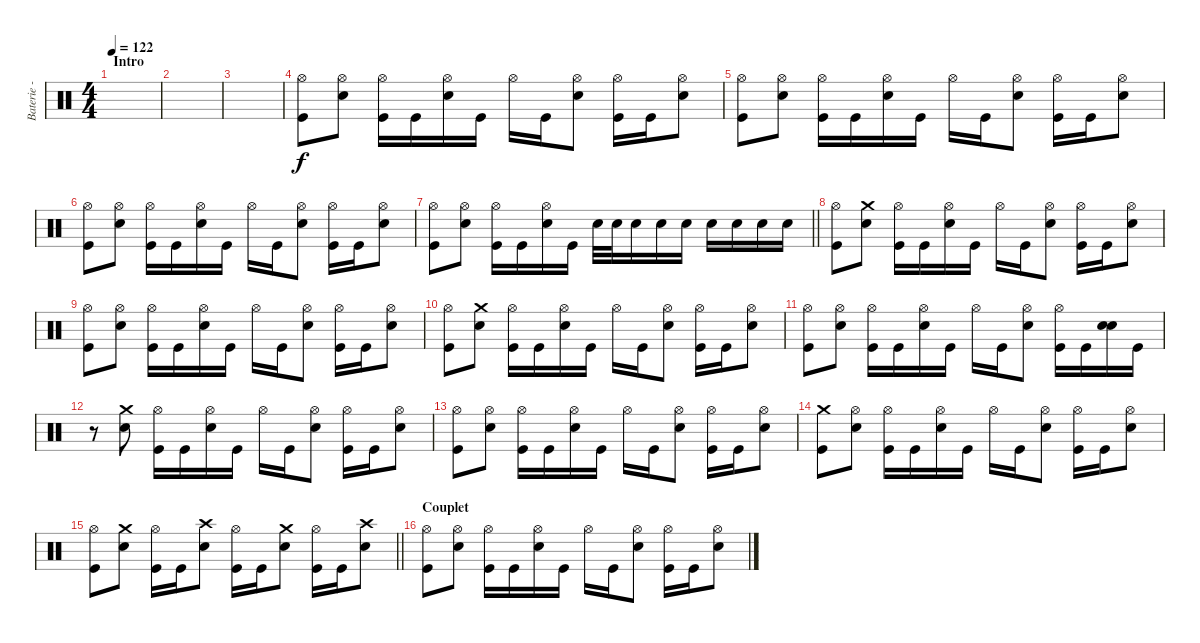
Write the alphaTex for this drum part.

\track ("Baterie - Alex" "Baterie - ") {instrument percussion}
\staff {score}
\articulation defaults
\ts (4 4)
\section ("" "Intro")
\tempo 122
\clef neutral
\ks c
|
|
|
("Hi-Hat (open)" "Kick (hit)").8 ("Hi-Hat (open)" "Electric Snare (hit)").8 ("Hi-Hat (open)" "Kick (hit)").16 "Kick (hit)".16 ("Hi-Hat (open)" "Electric Snare (hit)").16 "Kick (hit)".16 "Hi-Hat (open)".16 "Kick (hit)".16 ("Hi-Hat (open)" "Electric Snare (hit)").8 ("Hi-Hat (open)" "Kick (hit)").16 "Kick (hit)".16 ("Hi-Hat (open)" "Electric Snare (hit)").8 |
("Hi-Hat (open)" "Kick (hit)").8 ("Hi-Hat (open)" "Electric Snare (hit)").8 ("Hi-Hat (open)" "Kick (hit)").16 "Kick (hit)".16 ("Hi-Hat (open)" "Electric Snare (hit)").16 "Kick (hit)".16 "Hi-Hat (open)".16 "Kick (hit)".16 ("Hi-Hat (open)" "Electric Snare (hit)").8 ("Hi-Hat (open)" "Kick (hit)").16 "Kick (hit)".16 ("Hi-Hat (open)" "Electric Snare (hit)").8 |
("Hi-Hat (open)" "Kick (hit)").8 ("Hi-Hat (open)" "Electric Snare (hit)").8 ("Hi-Hat (open)" "Kick (hit)").16 "Kick (hit)".16 ("Hi-Hat (open)" "Electric Snare (hit)").16 "Kick (hit)".16 "Hi-Hat (open)".16 "Kick (hit)".16 ("Hi-Hat (open)" "Electric Snare (hit)").8 ("Hi-Hat (open)" "Kick (hit)").16 "Kick (hit)".16 ("Hi-Hat (open)" "Electric Snare (hit)").8 |
\barLineRight lightlight
("Hi-Hat (open)" "Kick (hit)").8 ("Hi-Hat (open)" "Electric Snare (hit)").8 ("Hi-Hat (open)" "Kick (hit)").16 "Kick (hit)".16 ("Hi-Hat (open)" "Electric Snare (hit)").16 "Kick (hit)".16 "Electric Snare (hit)".32 "Electric Snare (hit)".32 "Electric Snare (hit)".16 "Electric Snare (hit)".16 "Electric Snare (hit)".16 "Electric Snare (hit)".16 "Electric Snare (hit)".16 "Electric Snare (hit)".16 "Electric Snare (hit)".16 |
\section ("" "")
("Hi-Hat (open)" "Kick (hit)").8 ("Crash medium (hit)" "Electric Snare (hit)").8 ("Hi-Hat (open)" "Kick (hit)").16 "Kick (hit)".16 ("Hi-Hat (open)" "Electric Snare (hit)").16 "Kick (hit)".16 "Hi-Hat (open)".16 "Kick (hit)".16 ("Hi-Hat (open)" "Electric Snare (hit)").8 ("Hi-Hat (open)" "Kick (hit)").16 "Kick (hit)".16 ("Hi-Hat (open)" "Electric Snare (hit)").8 |
("Hi-Hat (open)" "Kick (hit)").8 ("Hi-Hat (open)" "Electric Snare (hit)").8 ("Hi-Hat (open)" "Kick (hit)").16 "Kick (hit)".16 ("Hi-Hat (open)" "Electric Snare (hit)").16 "Kick (hit)".16 "Hi-Hat (open)".16 "Kick (hit)".16 ("Hi-Hat (open)" "Electric Snare (hit)").8 ("Hi-Hat (open)" "Kick (hit)").16 "Kick (hit)".16 ("Hi-Hat (open)" "Electric Snare (hit)").8 |
("Hi-Hat (open)" "Kick (hit)").8 ("Crash medium (hit)" "Electric Snare (hit)").8 ("Hi-Hat (open)" "Kick (hit)").16 "Kick (hit)".16 ("Hi-Hat (open)" "Electric Snare (hit)").16 "Kick (hit)".16 "Hi-Hat (open)".16 "Kick (hit)".16 ("Hi-Hat (open)" "Electric Snare (hit)").8 ("Hi-Hat (open)" "Kick (hit)").16 "Kick (hit)".16 ("Hi-Hat (open)" "Electric Snare (hit)").8 |
("Hi-Hat (open)" "Kick (hit)").8 ("Hi-Hat (open)" "Electric Snare (hit)").8 ("Hi-Hat (open)" "Kick (hit)").16 "Kick (hit)".16 ("Hi-Hat (open)" "Electric Snare (hit)").16 "Kick (hit)".16 "Hi-Hat (open)".16 "Kick (hit)".16 ("Hi-Hat (open)" "Electric Snare (hit)").8 ("Hi-Hat (open)" "Kick (hit)").16 "Kick (hit)".16 ("Electric Snare (hit)" "Electric Snare (hit)").16 "Kick (hit)".16 |
r.8 ("Crash medium (hit)" "Electric Snare (hit)").8 ("Hi-Hat (open)" "Kick (hit)").16 "Kick (hit)".16 ("Hi-Hat (open)" "Electric Snare (hit)").16 "Kick (hit)".16 "Hi-Hat (open)".16 "Kick (hit)".16 ("Hi-Hat (open)" "Electric Snare (hit)").8 ("Hi-Hat (open)" "Kick (hit)").16 "Kick (hit)".16 ("Hi-Hat (open)" "Electric Snare (hit)").8 |
("Hi-Hat (open)" "Kick (hit)").8 ("Hi-Hat (open)" "Electric Snare (hit)").8 ("Hi-Hat (open)" "Kick (hit)").16 "Kick (hit)".16 ("Hi-Hat (open)" "Electric Snare (hit)").16 "Kick (hit)".16 "Hi-Hat (open)".16 "Kick (hit)".16 ("Hi-Hat (open)" "Electric Snare (hit)").8 ("Hi-Hat (open)" "Kick (hit)").16 "Kick (hit)".16 ("Hi-Hat (open)" "Electric Snare (hit)").8 |
("Crash medium (hit)" "Kick (hit)").8 ("Hi-Hat (open)" "Electric Snare (hit)").8 ("Hi-Hat (open)" "Kick (hit)").16 "Kick (hit)".16 ("Hi-Hat (open)" "Electric Snare (hit)").16 "Kick (hit)".16 "Hi-Hat (open)".16 "Kick (hit)".16 ("Hi-Hat (open)" "Electric Snare (hit)").8 ("Hi-Hat (open)" "Kick (hit)").16 "Kick (hit)".16 ("Hi-Hat (open)" "Electric Snare (hit)").8 |
\barLineRight lightlight
("Hi-Hat (open)" "Kick (hit)").8 ("Crash medium (hit)" "Electric Snare (hit)").8 ("Hi-Hat (open)" "Kick (hit)").16 "Kick (hit)".16 ("Crash high (hit)" "Electric Snare (hit)").8 ("Hi-Hat (open)" "Kick (hit)").16 "Kick (hit)".16 ("Crash medium (hit)" "Electric Snare (hit)").8 ("Hi-Hat (open)" "Kick (hit)").16 "Kick (hit)".16 ("Crash high (hit)" "Electric Snare (hit)").8 |
\section ("" "Couplet")
("Hi-Hat (open)" "Kick (hit)").8 ("Hi-Hat (open)" "Electric Snare (hit)").8 ("Hi-Hat (open)" "Kick (hit)").16 "Kick (hit)".16 ("Hi-Hat (open)" "Electric Snare (hit)").16 "Kick (hit)".16 "Hi-Hat (open)".16 "Kick (hit)".16 ("Hi-Hat (open)" "Electric Snare (hit)").8 ("Hi-Hat (open)" "Kick (hit)").16 "Kick (hit)".16 ("Hi-Hat (open)" "Electric Snare (hit)").8
